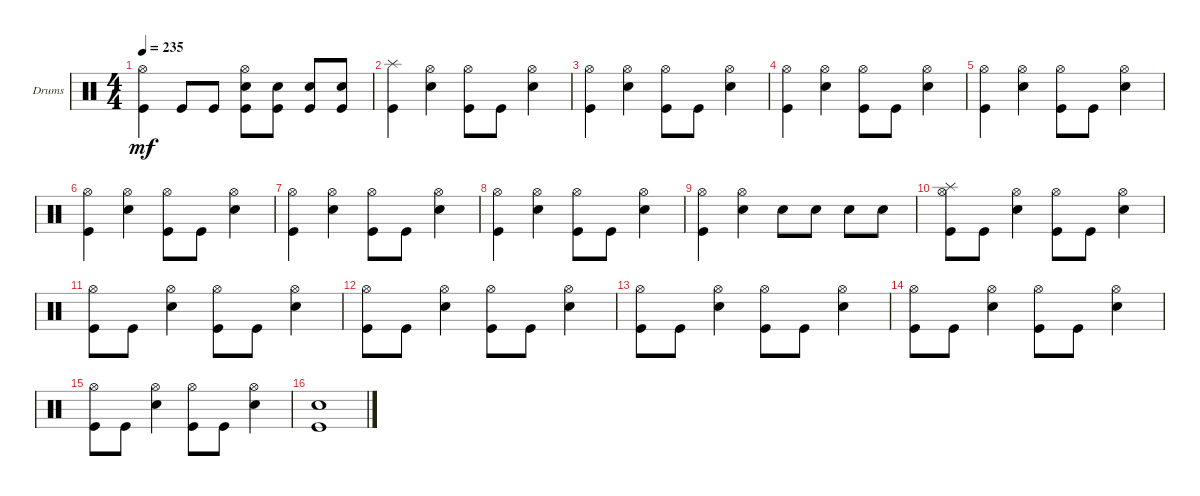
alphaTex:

\defaultSystemsLayout 4
\bracketExtendMode groupsimilarinstruments
\firstSystemTrackNameOrientation horizontal
\otherSystemsTrackNameOrientation horizontal
\track ("Drumkit" "Drums") {instrument percussion}
\staff {score}
\articulation defaults
\ts (4 4)
\tempo 235
\clef neutral
\ks c
("Hi-Hat (open)" "Kick (hit)").4{dy mf} "Kick (hit)".8 "Kick (hit)".8 ("Snare (hit) 2" "Hi-Hat (open)" "Kick (hit)").8 ("Snare (hit) 2" "Kick (hit)").8 ("Kick (hit)" "Snare (hit) 2").8 ("Kick (hit)" "Snare (hit) 2").8 |
("Splash (hit)" "Kick (hit)").4 ("Snare (hit) 2" "Hi-Hat (open)").4 ("Hi-Hat (open)" "Kick (hit)").8 "Kick (hit)".8 ("Snare (hit) 2" "Hi-Hat (open)").4 |
("Kick (hit)" "Hi-Hat (open)").4 ("Snare (hit) 2" "Hi-Hat (open)").4 ("Hi-Hat (open)" "Kick (hit)").8 "Kick (hit)".8 ("Snare (hit) 2" "Hi-Hat (open)").4 |
("Kick (hit)" "Hi-Hat (open)").4 ("Snare (hit) 2" "Hi-Hat (open)").4 ("Hi-Hat (open)" "Kick (hit)").8 "Kick (hit)".8 ("Snare (hit) 2" "Hi-Hat (open)").4 |
("Kick (hit)" "Hi-Hat (open)").4 ("Snare (hit) 2" "Hi-Hat (open)").4 ("Hi-Hat (open)" "Kick (hit)").8 "Kick (hit)".8 ("Snare (hit) 2" "Hi-Hat (open)").4 |
("Kick (hit)" "Hi-Hat (open)").4 ("Snare (hit) 2" "Hi-Hat (open)").4 ("Hi-Hat (open)" "Kick (hit)").8 "Kick (hit)".8 ("Snare (hit) 2" "Hi-Hat (open)").4 |
("Kick (hit)" "Hi-Hat (open)").4 ("Snare (hit) 2" "Hi-Hat (open)").4 ("Hi-Hat (open)" "Kick (hit)").8 "Kick (hit)".8 ("Snare (hit) 2" "Hi-Hat (open)").4 |
("Kick (hit)" "Hi-Hat (open)").4 ("Snare (hit) 2" "Hi-Hat (open)").4 ("Hi-Hat (open)" "Kick (hit)").8 "Kick (hit)".8 ("Snare (hit) 2" "Hi-Hat (open)").4 |
("Kick (hit)" "Hi-Hat (open)").4 ("Snare (hit) 2" "Hi-Hat (open)").4 "Snare (hit) 2".8 "Snare (hit) 2".8 "Snare (hit) 2".8 "Snare (hit) 2".8 |
("Splash (hit)" "Hi-Hat (open)" "Kick (hit)").8 "Kick (hit)".8 ("Snare (hit) 2" "Hi-Hat (open)").4 ("Hi-Hat (open)" "Kick (hit)").8 "Kick (hit)".8 ("Snare (hit) 2" "Hi-Hat (open)").4 |
("Hi-Hat (open)" "Kick (hit)").8 "Kick (hit)".8 ("Snare (hit) 2" "Hi-Hat (open)").4 ("Hi-Hat (open)" "Kick (hit)").8 "Kick (hit)".8 ("Snare (hit) 2" "Hi-Hat (open)").4 |
("Hi-Hat (open)" "Kick (hit)").8 "Kick (hit)".8 ("Snare (hit) 2" "Hi-Hat (open)").4 ("Hi-Hat (open)" "Kick (hit)").8 "Kick (hit)".8 ("Snare (hit) 2" "Hi-Hat (open)").4 |
("Hi-Hat (open)" "Kick (hit)").8 "Kick (hit)".8 ("Snare (hit) 2" "Hi-Hat (open)").4 ("Hi-Hat (open)" "Kick (hit)").8 "Kick (hit)".8 ("Snare (hit) 2" "Hi-Hat (open)").4 |
("Hi-Hat (open)" "Kick (hit)").8 "Kick (hit)".8 ("Snare (hit) 2" "Hi-Hat (open)").4 ("Hi-Hat (open)" "Kick (hit)").8 "Kick (hit)".8 ("Snare (hit) 2" "Hi-Hat (open)").4 |
("Hi-Hat (open)" "Kick (hit)").8 "Kick (hit)".8 ("Snare (hit) 2" "Hi-Hat (open)").4 ("Hi-Hat (open)" "Kick (hit)").8 "Kick (hit)".8 ("Snare (hit) 2" "Hi-Hat (open)").4 |
("Snare (hit) 2" "Kick (hit)").1
